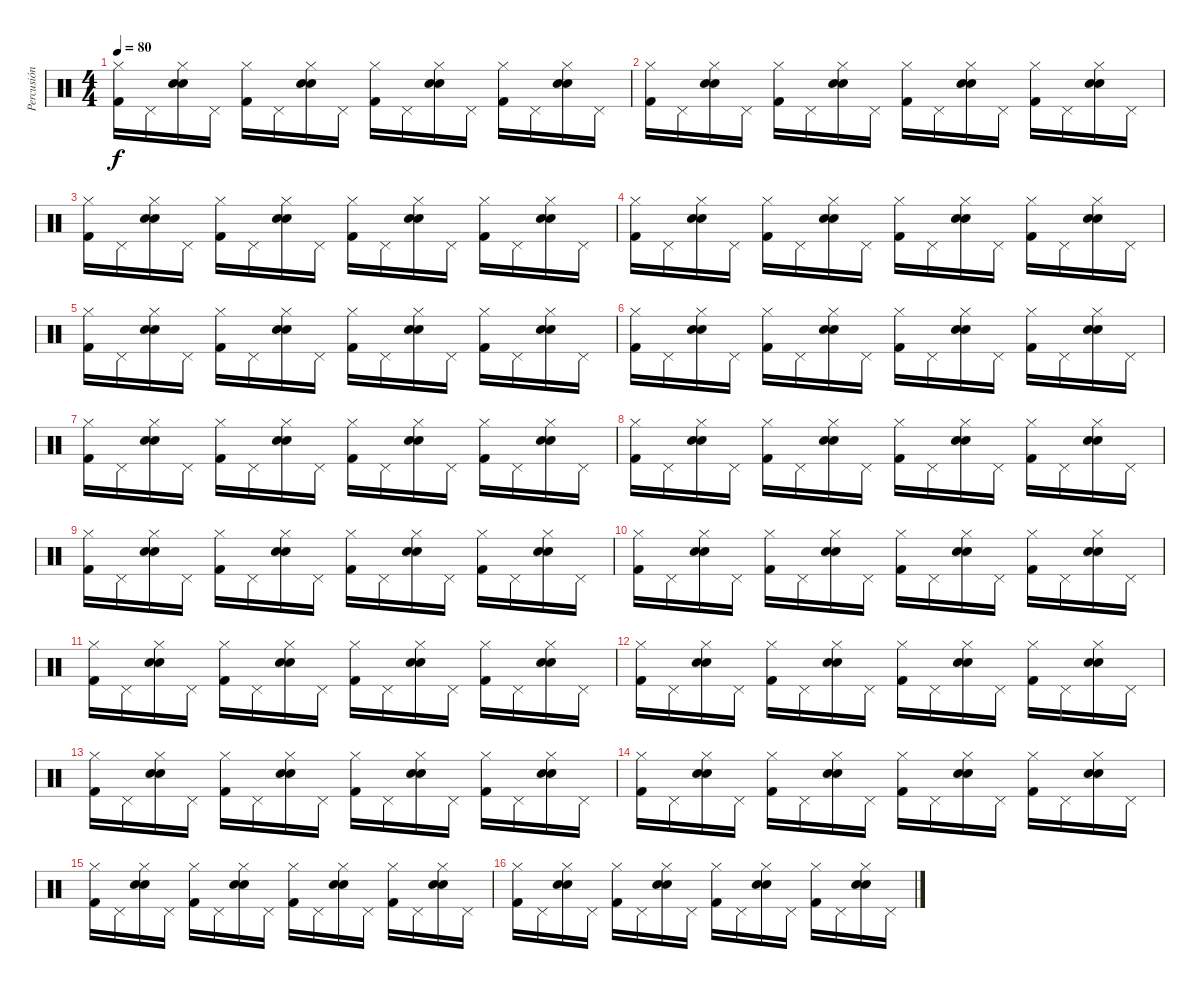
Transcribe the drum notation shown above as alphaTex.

\track ("Percusión" "Percusión") {instrument percussion}
\staff {score}
\articulation defaults
\ts (4 4)
\tempo 80
\clef neutral
\ks c
("Hi-Hat (closed)" "Kick (hit) 2").16{dy f} "Pedal Hi-Hat (hit)".16 ("Hi-Hat (closed)" "Hand Clap (hit)" "Electric Snare (hit)").16 "Pedal Hi-Hat (hit)".16 ("Hi-Hat (closed)" "Kick (hit) 2").16 "Pedal Hi-Hat (hit)".16 ("Hi-Hat (closed)" "Hand Clap (hit)" "Electric Snare (hit)").16 "Pedal Hi-Hat (hit)".16 ("Hi-Hat (closed)" "Kick (hit) 2").16 "Pedal Hi-Hat (hit)".16 ("Hi-Hat (closed)" "Hand Clap (hit)" "Electric Snare (hit)").16 "Pedal Hi-Hat (hit)".16 ("Hi-Hat (closed)" "Kick (hit) 2").16 "Pedal Hi-Hat (hit)".16 ("Hi-Hat (closed)" "Hand Clap (hit)" "Electric Snare (hit)").16 "Pedal Hi-Hat (hit)".16 |
("Hi-Hat (closed)" "Kick (hit) 2").16 "Pedal Hi-Hat (hit)".16 ("Hi-Hat (closed)" "Hand Clap (hit)" "Electric Snare (hit)").16 "Pedal Hi-Hat (hit)".16 ("Hi-Hat (closed)" "Kick (hit) 2").16 "Pedal Hi-Hat (hit)".16 ("Hi-Hat (closed)" "Hand Clap (hit)" "Electric Snare (hit)").16 "Pedal Hi-Hat (hit)".16 ("Hi-Hat (closed)" "Kick (hit) 2").16 "Pedal Hi-Hat (hit)".16 ("Hi-Hat (closed)" "Hand Clap (hit)" "Electric Snare (hit)").16 "Pedal Hi-Hat (hit)".16 ("Hi-Hat (closed)" "Kick (hit) 2").16 "Pedal Hi-Hat (hit)".16 ("Hi-Hat (closed)" "Hand Clap (hit)" "Electric Snare (hit)").16 "Pedal Hi-Hat (hit)".16 |
("Hi-Hat (closed)" "Kick (hit) 2").16 "Pedal Hi-Hat (hit)".16 ("Hi-Hat (closed)" "Hand Clap (hit)" "Electric Snare (hit)").16 "Pedal Hi-Hat (hit)".16 ("Hi-Hat (closed)" "Kick (hit) 2").16 "Pedal Hi-Hat (hit)".16 ("Hi-Hat (closed)" "Hand Clap (hit)" "Electric Snare (hit)").16 "Pedal Hi-Hat (hit)".16 ("Hi-Hat (closed)" "Kick (hit) 2").16 "Pedal Hi-Hat (hit)".16 ("Hi-Hat (closed)" "Hand Clap (hit)" "Electric Snare (hit)").16 "Pedal Hi-Hat (hit)".16 ("Hi-Hat (closed)" "Kick (hit) 2").16 "Pedal Hi-Hat (hit)".16 ("Hi-Hat (closed)" "Hand Clap (hit)" "Electric Snare (hit)").16 "Pedal Hi-Hat (hit)".16 |
("Hi-Hat (closed)" "Kick (hit) 2").16 "Pedal Hi-Hat (hit)".16 ("Hi-Hat (closed)" "Hand Clap (hit)" "Electric Snare (hit)").16 "Pedal Hi-Hat (hit)".16 ("Hi-Hat (closed)" "Kick (hit) 2").16 "Pedal Hi-Hat (hit)".16 ("Hi-Hat (closed)" "Hand Clap (hit)" "Electric Snare (hit)").16 "Pedal Hi-Hat (hit)".16 ("Hi-Hat (closed)" "Kick (hit) 2").16 "Pedal Hi-Hat (hit)".16 ("Hi-Hat (closed)" "Hand Clap (hit)" "Electric Snare (hit)").16 "Pedal Hi-Hat (hit)".16 ("Hi-Hat (closed)" "Kick (hit) 2").16 "Pedal Hi-Hat (hit)".16 ("Hi-Hat (closed)" "Hand Clap (hit)" "Electric Snare (hit)").16 "Pedal Hi-Hat (hit)".16 |
("Hi-Hat (closed)" "Kick (hit) 2").16 "Pedal Hi-Hat (hit)".16 ("Hi-Hat (closed)" "Hand Clap (hit)" "Electric Snare (hit)").16 "Pedal Hi-Hat (hit)".16 ("Hi-Hat (closed)" "Kick (hit) 2").16 "Pedal Hi-Hat (hit)".16 ("Hi-Hat (closed)" "Hand Clap (hit)" "Electric Snare (hit)").16 "Pedal Hi-Hat (hit)".16 ("Hi-Hat (closed)" "Kick (hit) 2").16 "Pedal Hi-Hat (hit)".16 ("Hi-Hat (closed)" "Hand Clap (hit)" "Electric Snare (hit)").16 "Pedal Hi-Hat (hit)".16 ("Hi-Hat (closed)" "Kick (hit) 2").16 "Pedal Hi-Hat (hit)".16 ("Hi-Hat (closed)" "Hand Clap (hit)" "Electric Snare (hit)").16 "Pedal Hi-Hat (hit)".16 |
("Hi-Hat (closed)" "Kick (hit) 2").16 "Pedal Hi-Hat (hit)".16 ("Hi-Hat (closed)" "Hand Clap (hit)" "Electric Snare (hit)").16 "Pedal Hi-Hat (hit)".16 ("Hi-Hat (closed)" "Kick (hit) 2").16 "Pedal Hi-Hat (hit)".16 ("Hi-Hat (closed)" "Hand Clap (hit)" "Electric Snare (hit)").16 "Pedal Hi-Hat (hit)".16 ("Hi-Hat (closed)" "Kick (hit) 2").16 "Pedal Hi-Hat (hit)".16 ("Hi-Hat (closed)" "Hand Clap (hit)" "Electric Snare (hit)").16 "Pedal Hi-Hat (hit)".16 ("Hi-Hat (closed)" "Kick (hit) 2").16 "Pedal Hi-Hat (hit)".16 ("Hi-Hat (closed)" "Hand Clap (hit)" "Electric Snare (hit)").16 "Pedal Hi-Hat (hit)".16 |
("Hi-Hat (closed)" "Kick (hit) 2").16 "Pedal Hi-Hat (hit)".16 ("Hi-Hat (closed)" "Hand Clap (hit)" "Electric Snare (hit)").16 "Pedal Hi-Hat (hit)".16 ("Hi-Hat (closed)" "Kick (hit) 2").16 "Pedal Hi-Hat (hit)".16 ("Hi-Hat (closed)" "Hand Clap (hit)" "Electric Snare (hit)").16 "Pedal Hi-Hat (hit)".16 ("Hi-Hat (closed)" "Kick (hit) 2").16 "Pedal Hi-Hat (hit)".16 ("Hi-Hat (closed)" "Hand Clap (hit)" "Electric Snare (hit)").16 "Pedal Hi-Hat (hit)".16 ("Hi-Hat (closed)" "Kick (hit) 2").16 "Pedal Hi-Hat (hit)".16 ("Hi-Hat (closed)" "Hand Clap (hit)" "Electric Snare (hit)").16 "Pedal Hi-Hat (hit)".16 |
("Hi-Hat (closed)" "Kick (hit) 2").16 "Pedal Hi-Hat (hit)".16 ("Hi-Hat (closed)" "Hand Clap (hit)" "Electric Snare (hit)").16 "Pedal Hi-Hat (hit)".16 ("Hi-Hat (closed)" "Kick (hit) 2").16 "Pedal Hi-Hat (hit)".16 ("Hi-Hat (closed)" "Hand Clap (hit)" "Electric Snare (hit)").16 "Pedal Hi-Hat (hit)".16 ("Hi-Hat (closed)" "Kick (hit) 2").16 "Pedal Hi-Hat (hit)".16 ("Hi-Hat (closed)" "Hand Clap (hit)" "Electric Snare (hit)").16 "Pedal Hi-Hat (hit)".16 ("Hi-Hat (closed)" "Kick (hit) 2").16 "Pedal Hi-Hat (hit)".16 ("Hi-Hat (closed)" "Hand Clap (hit)" "Electric Snare (hit)").16 "Pedal Hi-Hat (hit)".16 |
("Hi-Hat (closed)" "Kick (hit) 2").16 "Pedal Hi-Hat (hit)".16 ("Hi-Hat (closed)" "Hand Clap (hit)" "Electric Snare (hit)").16 "Pedal Hi-Hat (hit)".16 ("Hi-Hat (closed)" "Kick (hit) 2").16 "Pedal Hi-Hat (hit)".16 ("Hi-Hat (closed)" "Hand Clap (hit)" "Electric Snare (hit)").16 "Pedal Hi-Hat (hit)".16 ("Hi-Hat (closed)" "Kick (hit) 2").16 "Pedal Hi-Hat (hit)".16 ("Hi-Hat (closed)" "Hand Clap (hit)" "Electric Snare (hit)").16 "Pedal Hi-Hat (hit)".16 ("Hi-Hat (closed)" "Kick (hit) 2").16 "Pedal Hi-Hat (hit)".16 ("Hi-Hat (closed)" "Hand Clap (hit)" "Electric Snare (hit)").16 "Pedal Hi-Hat (hit)".16 |
("Hi-Hat (closed)" "Kick (hit) 2").16 "Pedal Hi-Hat (hit)".16 ("Hi-Hat (closed)" "Hand Clap (hit)" "Electric Snare (hit)").16 "Pedal Hi-Hat (hit)".16 ("Hi-Hat (closed)" "Kick (hit) 2").16 "Pedal Hi-Hat (hit)".16 ("Hi-Hat (closed)" "Hand Clap (hit)" "Electric Snare (hit)").16 "Pedal Hi-Hat (hit)".16 ("Hi-Hat (closed)" "Kick (hit) 2").16 "Pedal Hi-Hat (hit)".16 ("Hi-Hat (closed)" "Hand Clap (hit)" "Electric Snare (hit)").16 "Pedal Hi-Hat (hit)".16 ("Hi-Hat (closed)" "Kick (hit) 2").16 "Pedal Hi-Hat (hit)".16 ("Hi-Hat (closed)" "Hand Clap (hit)" "Electric Snare (hit)").16 "Pedal Hi-Hat (hit)".16 |
("Hi-Hat (closed)" "Kick (hit) 2").16 "Pedal Hi-Hat (hit)".16 ("Hi-Hat (closed)" "Hand Clap (hit)" "Electric Snare (hit)").16 "Pedal Hi-Hat (hit)".16 ("Hi-Hat (closed)" "Kick (hit) 2").16 "Pedal Hi-Hat (hit)".16 ("Hi-Hat (closed)" "Hand Clap (hit)" "Electric Snare (hit)").16 "Pedal Hi-Hat (hit)".16 ("Hi-Hat (closed)" "Kick (hit) 2").16 "Pedal Hi-Hat (hit)".16 ("Hi-Hat (closed)" "Hand Clap (hit)" "Electric Snare (hit)").16 "Pedal Hi-Hat (hit)".16 ("Hi-Hat (closed)" "Kick (hit) 2").16 "Pedal Hi-Hat (hit)".16 ("Hi-Hat (closed)" "Hand Clap (hit)" "Electric Snare (hit)").16 "Pedal Hi-Hat (hit)".16 |
("Hi-Hat (closed)" "Kick (hit) 2").16 "Pedal Hi-Hat (hit)".16 ("Hi-Hat (closed)" "Hand Clap (hit)" "Electric Snare (hit)").16 "Pedal Hi-Hat (hit)".16 ("Hi-Hat (closed)" "Kick (hit) 2").16 "Pedal Hi-Hat (hit)".16 ("Hi-Hat (closed)" "Hand Clap (hit)" "Electric Snare (hit)").16 "Pedal Hi-Hat (hit)".16 ("Hi-Hat (closed)" "Kick (hit) 2").16 "Pedal Hi-Hat (hit)".16 ("Hi-Hat (closed)" "Hand Clap (hit)" "Electric Snare (hit)").16 "Pedal Hi-Hat (hit)".16 ("Hi-Hat (closed)" "Kick (hit) 2").16 "Pedal Hi-Hat (hit)".16 ("Hi-Hat (closed)" "Hand Clap (hit)" "Electric Snare (hit)").16 "Pedal Hi-Hat (hit)".16 |
("Hi-Hat (closed)" "Kick (hit) 2").16 "Pedal Hi-Hat (hit)".16 ("Hi-Hat (closed)" "Hand Clap (hit)" "Electric Snare (hit)").16 "Pedal Hi-Hat (hit)".16 ("Hi-Hat (closed)" "Kick (hit) 2").16 "Pedal Hi-Hat (hit)".16 ("Hi-Hat (closed)" "Hand Clap (hit)" "Electric Snare (hit)").16 "Pedal Hi-Hat (hit)".16 ("Hi-Hat (closed)" "Kick (hit) 2").16 "Pedal Hi-Hat (hit)".16 ("Hi-Hat (closed)" "Hand Clap (hit)" "Electric Snare (hit)").16 "Pedal Hi-Hat (hit)".16 ("Hi-Hat (closed)" "Kick (hit) 2").16 "Pedal Hi-Hat (hit)".16 ("Hi-Hat (closed)" "Hand Clap (hit)" "Electric Snare (hit)").16 "Pedal Hi-Hat (hit)".16 |
("Hi-Hat (closed)" "Kick (hit) 2").16 "Pedal Hi-Hat (hit)".16 ("Hi-Hat (closed)" "Hand Clap (hit)" "Electric Snare (hit)").16 "Pedal Hi-Hat (hit)".16 ("Hi-Hat (closed)" "Kick (hit) 2").16 "Pedal Hi-Hat (hit)".16 ("Hi-Hat (closed)" "Hand Clap (hit)" "Electric Snare (hit)").16 "Pedal Hi-Hat (hit)".16 ("Hi-Hat (closed)" "Kick (hit) 2").16 "Pedal Hi-Hat (hit)".16 ("Hi-Hat (closed)" "Hand Clap (hit)" "Electric Snare (hit)").16 "Pedal Hi-Hat (hit)".16 ("Hi-Hat (closed)" "Kick (hit) 2").16 "Pedal Hi-Hat (hit)".16 ("Hi-Hat (closed)" "Hand Clap (hit)" "Electric Snare (hit)").16 "Pedal Hi-Hat (hit)".16 |
("Hi-Hat (closed)" "Kick (hit) 2").16 "Pedal Hi-Hat (hit)".16 ("Hi-Hat (closed)" "Hand Clap (hit)" "Electric Snare (hit)").16 "Pedal Hi-Hat (hit)".16 ("Hi-Hat (closed)" "Kick (hit) 2").16 "Pedal Hi-Hat (hit)".16 ("Hi-Hat (closed)" "Hand Clap (hit)" "Electric Snare (hit)").16 "Pedal Hi-Hat (hit)".16 ("Hi-Hat (closed)" "Kick (hit) 2").16 "Pedal Hi-Hat (hit)".16 ("Hi-Hat (closed)" "Hand Clap (hit)" "Electric Snare (hit)").16 "Pedal Hi-Hat (hit)".16 ("Hi-Hat (closed)" "Kick (hit) 2").16 "Pedal Hi-Hat (hit)".16 ("Hi-Hat (closed)" "Hand Clap (hit)" "Electric Snare (hit)").16 "Pedal Hi-Hat (hit)".16 |
("Hi-Hat (closed)" "Kick (hit) 2").16 "Pedal Hi-Hat (hit)".16 ("Hi-Hat (closed)" "Hand Clap (hit)" "Electric Snare (hit)").16 "Pedal Hi-Hat (hit)".16 ("Hi-Hat (closed)" "Kick (hit) 2").16 "Pedal Hi-Hat (hit)".16 ("Hi-Hat (closed)" "Hand Clap (hit)" "Electric Snare (hit)").16 "Pedal Hi-Hat (hit)".16 ("Hi-Hat (closed)" "Kick (hit) 2").16 "Pedal Hi-Hat (hit)".16 ("Hi-Hat (closed)" "Hand Clap (hit)" "Electric Snare (hit)").16 "Pedal Hi-Hat (hit)".16 ("Hi-Hat (closed)" "Kick (hit) 2").16 "Pedal Hi-Hat (hit)".16 ("Hi-Hat (closed)" "Hand Clap (hit)" "Electric Snare (hit)").16 "Pedal Hi-Hat (hit)".16
